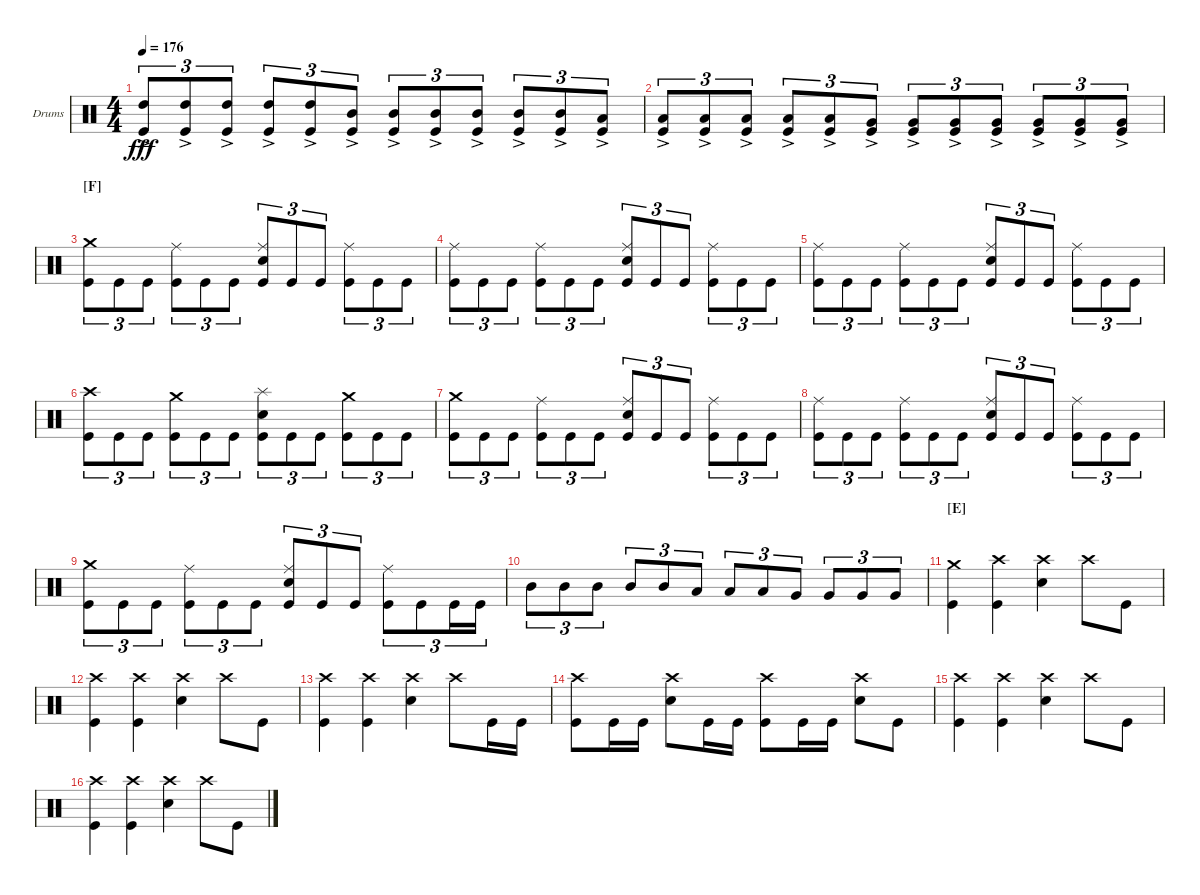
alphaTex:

\defaultSystemsLayout 4
\bracketExtendMode groupsimilarinstruments
\firstSystemTrackNameOrientation horizontal
\otherSystemsTrackNameOrientation horizontal
\track ("Drums" "Drums") {instrument percussion}
\staff {score}
\articulation defaults
\ts (4 4)
\tempo 176
\clef neutral
\ks c
("Kick (hit)" "High Tom (hit)"{ac}).8{tu (3 2) dy fff} ("Kick (hit)" "High Tom (hit)"{ac}).8{tu (3 2)} ("Kick (hit)" "High Tom (hit)"{ac}).8{tu (3 2)} ("Kick (hit)" "High Tom (hit)"{ac}).8{tu (3 2)} ("Kick (hit)" "High Tom (hit)"{ac}).8{tu (3 2)} ("Kick (hit)" "Mid Tom (hit)"{ac}).8{tu (3 2)} ("Kick (hit)" "Mid Tom (hit)"{ac}).8{tu (3 2)} ("Kick (hit)" "Mid Tom (hit)"{ac}).8{tu (3 2)} ("Kick (hit)" "Mid Tom (hit)"{ac}).8{tu (3 2)} ("Kick (hit)" "Mid Tom (hit)"{ac}).8{tu (3 2)} ("Kick (hit)" "Mid Tom (hit)"{ac}).8{tu (3 2)} ("Kick (hit)" "Low Tom (hit)"{ac}).8{tu (3 2)} |
("Kick (hit)" "Low Tom (hit)"{ac}).8{tu (3 2)} ("Kick (hit)" "Low Tom (hit)"{ac}).8{tu (3 2)} ("Kick (hit)" "Low Tom (hit)"{ac}).8{tu (3 2)} ("Kick (hit)" "Low Tom (hit)"{ac}).8{tu (3 2)} ("Kick (hit)" "Low Tom (hit)"{ac}).8{tu (3 2)} ("Kick (hit)" "Very Low Tom (hit)"{ac}).8{tu (3 2)} ("Kick (hit)" "Very Low Tom (hit)"{ac}).8{tu (3 2)} ("Kick (hit)" "Very Low Tom (hit)"{ac}).8{tu (3 2)} ("Kick (hit)" "Very Low Tom (hit)"{ac}).8{tu (3 2)} ("Kick (hit)" "Very Low Tom (hit)"{ac}).8{tu (3 2)} ("Kick (hit)" "Very Low Tom (hit)"{ac}).8{tu (3 2)} ("Kick (hit)" "Very Low Tom (hit)"{ac}).8{tu (3 2)} |
\section ("F" "")
("Crash medium (hit)" "Kick (hit)").8{tu (3 2)} "Kick (hit)".8{tu (3 2)} "Kick (hit)".8{tu (3 2)} ("Kick (hit)" "Ride (middle)").8{tu (3 2)} "Kick (hit)".8{tu (3 2)} "Kick (hit)".8{tu (3 2)} ("Kick (hit)" "Ride (middle)" "Snare (hit) 2").8{tu (3 2)} "Kick (hit)".8{tu (3 2)} "Kick (hit)".8{tu (3 2)} ("Kick (hit)" "Ride (middle)").8{tu (3 2)} "Kick (hit)".8{tu (3 2)} "Kick (hit)".8{tu (3 2)} |
("Kick (hit)" "Ride (middle)").8{tu (3 2)} "Kick (hit)".8{tu (3 2)} "Kick (hit)".8{tu (3 2)} ("Kick (hit)" "Ride (middle)").8{tu (3 2)} "Kick (hit)".8{tu (3 2)} "Kick (hit)".8{tu (3 2)} ("Kick (hit)" "Ride (middle)" "Snare (hit) 2").8{tu (3 2)} "Kick (hit)".8{tu (3 2)} "Kick (hit)".8{tu (3 2)} ("Kick (hit)" "Ride (middle)").8{tu (3 2)} "Kick (hit)".8{tu (3 2)} "Kick (hit)".8{tu (3 2)} |
("Kick (hit)" "Ride (middle)").8{tu (3 2)} "Kick (hit)".8{tu (3 2)} "Kick (hit)".8{tu (3 2)} ("Kick (hit)" "Ride (middle)").8{tu (3 2)} "Kick (hit)".8{tu (3 2)} "Kick (hit)".8{tu (3 2)} ("Kick (hit)" "Ride (middle)" "Snare (hit) 2").8{tu (3 2)} "Kick (hit)".8{tu (3 2)} "Kick (hit)".8{tu (3 2)} ("Kick (hit)" "Ride (middle)").8{tu (3 2)} "Kick (hit)".8{tu (3 2)} "Kick (hit)".8{tu (3 2)} |
("Kick (hit)" "Crash high (hit)").8{tu (3 2)} "Kick (hit)".8{tu (3 2)} "Kick (hit)".8{tu (3 2)} ("Kick (hit)" "Crash medium (hit)").8{tu (3 2)} "Kick (hit)".8{tu (3 2)} "Kick (hit)".8{tu (3 2)} ("Kick (hit)" "Snare (hit) 2" "Splash (hit)").8{tu (3 2)} "Kick (hit)".8{tu (3 2)} "Kick (hit)".8{tu (3 2)} ("Kick (hit)" "Crash medium (hit)").8{tu (3 2)} "Kick (hit)".8{tu (3 2)} "Kick (hit)".8{tu (3 2)} |
("Crash medium (hit)" "Kick (hit)").8{tu (3 2)} "Kick (hit)".8{tu (3 2)} "Kick (hit)".8{tu (3 2)} ("Kick (hit)" "Ride (middle)").8{tu (3 2)} "Kick (hit)".8{tu (3 2)} "Kick (hit)".8{tu (3 2)} ("Kick (hit)" "Ride (middle)" "Snare (hit) 2").8{tu (3 2)} "Kick (hit)".8{tu (3 2)} "Kick (hit)".8{tu (3 2)} ("Kick (hit)" "Ride (middle)").8{tu (3 2)} "Kick (hit)".8{tu (3 2)} "Kick (hit)".8{tu (3 2)} |
("Kick (hit)" "Ride (middle)").8{tu (3 2)} "Kick (hit)".8{tu (3 2)} "Kick (hit)".8{tu (3 2)} ("Kick (hit)" "Ride (middle)").8{tu (3 2)} "Kick (hit)".8{tu (3 2)} "Kick (hit)".8{tu (3 2)} ("Kick (hit)" "Ride (middle)" "Snare (hit) 2").8{tu (3 2)} "Kick (hit)".8{tu (3 2)} "Kick (hit)".8{tu (3 2)} ("Kick (hit)" "Ride (middle)").8{tu (3 2)} "Kick (hit)".8{tu (3 2)} "Kick (hit)".8{tu (3 2)} |
("Crash medium (hit)" "Kick (hit)").8{tu (3 2)} "Kick (hit)".8{tu (3 2)} "Kick (hit)".8{tu (3 2)} ("Kick (hit)" "Ride (middle)").8{tu (3 2)} "Kick (hit)".8{tu (3 2)} "Kick (hit)".8{tu (3 2)} ("Kick (hit)" "Ride (middle)" "Snare (hit) 2").8{tu (3 2)} "Kick (hit)".8{tu (3 2)} "Kick (hit)".8{tu (3 2)} ("Kick (hit)" "Ride (middle)").8{tu (3 2)} "Kick (hit)".8{tu (3 2)} "Kick (hit)".16{tu (3 2)} "Kick (hit)".16{tu (3 2)} |
"Mid Tom (hit)".8{tu (3 2)} "Mid Tom (hit)".8{tu (3 2)} "Mid Tom (hit)".8{tu (3 2)} "Mid Tom (hit)".8{tu (3 2)} "Mid Tom (hit)".8{tu (3 2)} "Low Tom (hit)".8{tu (3 2)} "Low Tom (hit)".8{tu (3 2)} "Low Tom (hit)".8{tu (3 2)} "Very Low Tom (hit)".8{tu (3 2)} "Very Low Tom (hit)".8{tu (3 2)} "Very Low Tom (hit)".8{tu (3 2)} "Very Low Tom (hit)".8{tu (3 2)} |
\section ("E" "")
("Kick (hit)" "Crash medium (hit)").4 ("Kick (hit)" "Crash high (hit)").4 ("Snare (hit) 2" "Crash high (hit)").4 "Crash high (hit)".8 "Kick (hit)".8 |
("Kick (hit)" "Crash high (hit)").4 ("Kick (hit)" "Crash high (hit)").4 ("Snare (hit) 2" "Crash high (hit)").4 "Crash high (hit)".8 "Kick (hit)".8 |
("Kick (hit)" "Crash high (hit)").4 ("Kick (hit)" "Crash high (hit)").4 ("Snare (hit) 2" "Crash high (hit)").4 "Crash high (hit)".8 "Kick (hit)".16 "Kick (hit)".16 |
("Crash high (hit)" "Kick (hit)").8 "Kick (hit)".16 "Kick (hit)".16 ("Snare (hit) 2" "Crash high (hit)").8 "Kick (hit)".16 "Kick (hit)".16 ("Crash high (hit)" "Kick (hit)").8 "Kick (hit)".16 "Kick (hit)".16 ("Snare (hit) 2" "Crash high (hit)").8 "Kick (hit)".8 |
("Kick (hit)" "Crash high (hit)").4 ("Kick (hit)" "Crash high (hit)").4 ("Snare (hit) 2" "Crash high (hit)").4 "Crash high (hit)".8 "Kick (hit)".8 |
("Kick (hit)" "Crash high (hit)").4 ("Kick (hit)" "Crash high (hit)").4 ("Snare (hit) 2" "Crash high (hit)").4 "Crash high (hit)".8 "Kick (hit)".8
